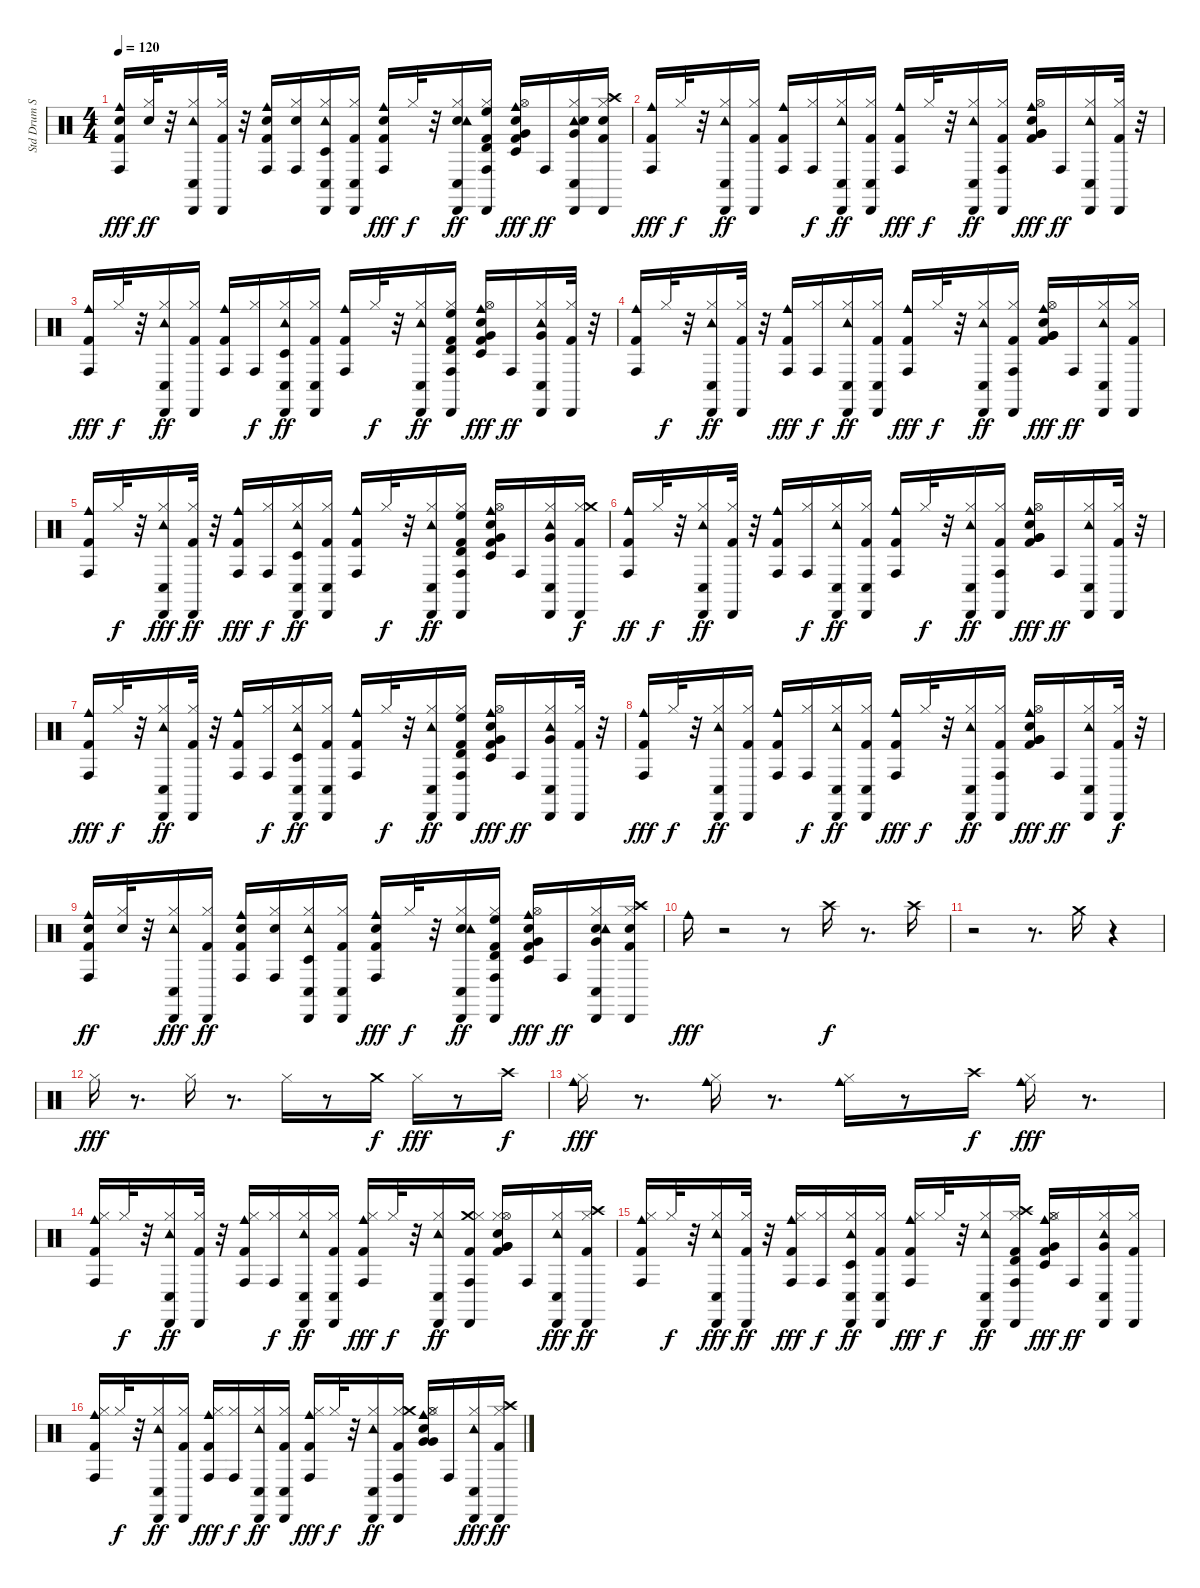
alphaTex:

\track ("Std Drum Set" "Std Drum S") {instrument percussion}
\staff {score}
\articulation defaults
\ts (4 4)
\tempo 120
\clef neutral
\ks c
("Electric Snare (hit)" "Conga high (hit)" "Cowbell medium (hit)" "Kick (hit) 2").16{dy fff} ("Hi-Hat (closed)" "Electric Snare (hit)").32{dy ff} r.32 ("Conga low (hit)" "Hi-Hat (closed)" "Cabasa (hit)" "Tambourine (hit)").16 ("Kick (hit) 2" "Hi-Hat (closed)" "Cabasa (hit)").32 r.32 ("Kick (hit) 2" "Cowbell medium (hit)" "Electric Snare (hit)" "Conga high (hit)").16 ("Conga high (hit)" "Hi-Hat (closed)" "Electric Snare (hit)").16 ("Tambourine (hit)" "Conga low (hit)" "Hi-Hat (closed)" "Cabasa (hit)" "Timbale low (hit)").16 ("Kick (hit) 2" "Conga low (hit)" "Cabasa (hit)" "Hi-Hat (closed)").16 ("Cowbell medium (hit)" "Electric Snare (hit)" "Conga high (hit)" "Kick (hit) 2").16{dy fff} "Hi-Hat (closed)".32{dy f} r.32 ("Conga low (hit)" "Cabasa (hit)" "Electric Snare (hit)" "Tambourine (hit)" "Hi-Hat (closed)").16{dy ff} ("Cabasa (hit)" "Kick (hit) 2" "High Floor Tom (hit)" "Timbale high (hit)" "Hi-Hat (closed)" "Conga high (hit)").16 ("Electric Snare (hit)" "Timbale low (hit)" "Cowbell medium (hit)" "Hi-Hat (open)" "Kick (hit) 2" "Very Low Tom (hit)").16{dy fff} "Conga high (hit)".16{dy ff} ("Tambourine (hit)" "Hi-Hat (closed)" "Conga low (hit)" "Cabasa (hit)" "Electric Snare (hit)" "Very Low Tom (hit)").16 ("Kick (hit) 2" "Electric Snare (hit)" "Cabasa (hit)" "Hi-Hat (closed)" "Crash high (hit)").16 |
("Conga high (hit)" "Kick (hit) 2" "Cowbell medium (hit)").16{dy fff} "Hi-Hat (closed)".32{dy f} r.32 ("Hi-Hat (closed)" "Cabasa (hit)" "Conga low (hit)" "Tambourine (hit)").16{dy ff} ("Hi-Hat (closed)" "Cabasa (hit)" "Kick (hit) 2").16 ("Cowbell medium (hit)" "Kick (hit) 2" "Conga high (hit)").16 ("Hi-Hat (closed)" "Conga high (hit)").16{dy f} ("Conga low (hit)" "Cabasa (hit)" "Tambourine (hit)" "Hi-Hat (closed)").16{dy ff} ("Conga low (hit)" "Cabasa (hit)" "Hi-Hat (closed)" "Kick (hit) 2").16 ("Kick (hit) 2" "Conga high (hit)" "Cowbell medium (hit)").16{dy fff} "Hi-Hat (closed)".32{dy f} r.32 ("Cabasa (hit)" "Conga low (hit)" "Hi-Hat (closed)" "Tambourine (hit)").16{dy ff} ("Conga high (hit)" "Kick (hit) 2" "Hi-Hat (closed)" "Cabasa (hit)").16 ("Electric Snare (hit)" "Very Low Tom (hit)" "Very Low Tom (hit)" "Hi-Hat (open)" "Cowbell medium (hit)" "Kick (hit) 2").16{dy fff} "Conga high (hit)".16{dy ff} ("Tambourine (hit)" "Conga low (hit)" "Cabasa (hit)" "Hi-Hat (closed)").16 ("Kick (hit) 2" "Hi-Hat (closed)" "Cabasa (hit)").32 r.32 |
("Cowbell medium (hit)" "Conga high (hit)" "Kick (hit) 2").16{dy fff} "Hi-Hat (closed)".32{dy f} r.32 ("Conga low (hit)" "Hi-Hat (closed)" "Tambourine (hit)" "Cabasa (hit)").16{dy ff} ("Hi-Hat (closed)" "Cabasa (hit)" "Kick (hit) 2").16 ("Cowbell medium (hit)" "Kick (hit) 2" "Conga high (hit)").16 ("Hi-Hat (closed)" "Conga high (hit)").16{dy f} ("Conga low (hit)" "Cabasa (hit)" "Tambourine (hit)" "Hi-Hat (closed)" "Timbale low (hit)").16{dy ff} ("Cabasa (hit)" "Kick (hit) 2" "Hi-Hat (closed)" "Conga low (hit)").16 ("Kick (hit) 2" "Cowbell medium (hit)" "Conga high (hit)").16 "Hi-Hat (closed)".32{dy f} r.32 ("Cabasa (hit)" "Hi-Hat (closed)" "Conga low (hit)" "Tambourine (hit)").16{dy ff} ("High Floor Tom (hit)" "Cabasa (hit)" "Timbale high (hit)" "Hi-Hat (closed)" "Conga high (hit)" "Kick (hit) 2").16 ("Timbale low (hit)" "Kick (hit) 2" "Very Low Tom (hit)" "Hi-Hat (open)" "Cowbell medium (hit)" "Electric Snare (hit)").16{dy fff} "Conga high (hit)".16{dy ff} ("Cabasa (hit)" "Tambourine (hit)" "Very Low Tom (hit)" "Conga low (hit)" "Hi-Hat (closed)").16 ("Kick (hit) 2" "Hi-Hat (closed)" "Cabasa (hit)").32 r.32 |
("Kick (hit) 2" "Cowbell medium (hit)" "Conga high (hit)").16 "Hi-Hat (closed)".32{dy f} r.32 ("Tambourine (hit)" "Hi-Hat (closed)" "Cabasa (hit)" "Conga low (hit)").16{dy ff} ("Hi-Hat (closed)" "Kick (hit) 2" "Cabasa (hit)").32 r.32 ("Kick (hit) 2" "Conga high (hit)" "Cowbell medium (hit)").16{dy fff} ("Hi-Hat (closed)" "Conga high (hit)").16{dy f} ("Cabasa (hit)" "Conga low (hit)" "Tambourine (hit)" "Hi-Hat (closed)").16{dy ff} ("Conga low (hit)" "Kick (hit) 2" "Cabasa (hit)" "Hi-Hat (closed)").16 ("Cowbell medium (hit)" "Conga high (hit)" "Kick (hit) 2").16{dy fff} "Hi-Hat (closed)".32{dy f} r.32 ("Cabasa (hit)" "Hi-Hat (closed)" "Tambourine (hit)" "Conga low (hit)").16{dy ff} ("Kick (hit) 2" "Conga high (hit)" "Cabasa (hit)" "Hi-Hat (closed)").16 ("Hi-Hat (open)" "Electric Snare (hit)" "Very Low Tom (hit)" "Kick (hit) 2" "Very Low Tom (hit)" "Cowbell medium (hit)").16{dy fff} "Conga high (hit)".16{dy ff} ("Cabasa (hit)" "Tambourine (hit)" "Hi-Hat (closed)" "Conga low (hit)").16 ("Cabasa (hit)" "Hi-Hat (closed)" "Kick (hit) 2").16 |
("Kick (hit) 2" "Cowbell medium (hit)" "Conga high (hit)").16 "Hi-Hat (closed)".32{dy f} r.32 ("Conga low (hit)" "Tambourine (hit)" "Hi-Hat (closed)" "Cabasa (hit)").16{dy fff} ("Kick (hit) 2" "Hi-Hat (closed)" "Cabasa (hit)").32{dy ff} r.32 ("Conga high (hit)" "Kick (hit) 2" "Cowbell medium (hit)").16{dy fff} ("Conga high (hit)" "Hi-Hat (closed)").16{dy f} ("Cabasa (hit)" "Tambourine (hit)" "Timbale low (hit)" "Hi-Hat (closed)" "Conga low (hit)").16{dy ff} ("Cabasa (hit)" "Kick (hit) 2" "Conga low (hit)" "Hi-Hat (closed)").16 ("Kick (hit) 2" "Cowbell medium (hit)" "Conga high (hit)").16 "Hi-Hat (closed)".32{dy f} r.32 ("Conga low (hit)" "Cabasa (hit)" "Hi-Hat (closed)" "Tambourine (hit)").16{dy ff} ("High Floor Tom (hit)" "Kick (hit) 2" "Timbale high (hit)" "Cabasa (hit)" "Hi-Hat (closed)" "Conga high (hit)").16 ("Kick (hit) 2" "Cowbell medium (hit)" "Hi-Hat (open)" "Timbale low (hit)" "Very Low Tom (hit)" "Electric Snare (hit)").16 "Conga high (hit)".16 ("Cabasa (hit)" "Very Low Tom (hit)" "Conga low (hit)" "Tambourine (hit)" "Hi-Hat (closed)").16 ("Cabasa (hit)" "Hi-Hat (closed)" "Kick (hit) 2" "Crash medium (hit)").16{dy f} |
("Cowbell medium (hit)" "Kick (hit) 2" "Conga high (hit)").16{dy ff} "Hi-Hat (closed)".32{dy f} r.32 ("Conga low (hit)" "Hi-Hat (closed)" "Tambourine (hit)" "Cabasa (hit)").16{dy ff} ("Hi-Hat (closed)" "Cabasa (hit)" "Kick (hit) 2").32 r.32 ("Cowbell medium (hit)" "Kick (hit) 2" "Conga high (hit)").16 ("Conga high (hit)" "Hi-Hat (closed)").16{dy f} ("Hi-Hat (closed)" "Conga low (hit)" "Cabasa (hit)" "Tambourine (hit)").16{dy ff} ("Cabasa (hit)" "Kick (hit) 2" "Conga low (hit)" "Hi-Hat (closed)").16 ("Cowbell medium (hit)" "Kick (hit) 2" "Conga high (hit)").16 "Hi-Hat (closed)".32{dy f} r.32 ("Hi-Hat (closed)" "Tambourine (hit)" "Cabasa (hit)" "Conga low (hit)").16{dy ff} ("Cabasa (hit)" "Conga high (hit)" "Hi-Hat (closed)" "Kick (hit) 2").16 ("Kick (hit) 2" "Hi-Hat (open)" "Cowbell medium (hit)" "Very Low Tom (hit)" "Very Low Tom (hit)" "Electric Snare (hit)").16{dy fff} "Conga high (hit)".16{dy ff} ("Tambourine (hit)" "Hi-Hat (closed)" "Conga low (hit)" "Cabasa (hit)").16 ("Kick (hit) 2" "Cabasa (hit)" "Hi-Hat (closed)").32 r.32 |
("Conga high (hit)" "Cowbell medium (hit)" "Kick (hit) 2").16{dy fff} "Hi-Hat (closed)".32{dy f} r.32 ("Conga low (hit)" "Cabasa (hit)" "Hi-Hat (closed)" "Tambourine (hit)").16{dy ff} ("Hi-Hat (closed)" "Cabasa (hit)" "Kick (hit) 2").32 r.32 ("Cowbell medium (hit)" "Kick (hit) 2" "Conga high (hit)").16 ("Conga high (hit)" "Hi-Hat (closed)").16{dy f} ("Cabasa (hit)" "Hi-Hat (closed)" "Conga low (hit)" "Timbale low (hit)" "Tambourine (hit)").16{dy ff} ("Cabasa (hit)" "Hi-Hat (closed)" "Conga low (hit)" "Kick (hit) 2").16 ("Cowbell medium (hit)" "Kick (hit) 2" "Conga high (hit)").16 "Hi-Hat (closed)".32{dy f} r.32 ("Tambourine (hit)" "Conga low (hit)" "Cabasa (hit)" "Hi-Hat (closed)").16{dy ff} ("Timbale high (hit)" "Cabasa (hit)" "Conga high (hit)" "High Floor Tom (hit)" "Hi-Hat (closed)" "Kick (hit) 2").16 ("Timbale low (hit)" "Hi-Hat (open)" "Cowbell medium (hit)" "Electric Snare (hit)" "Very Low Tom (hit)" "Kick (hit) 2").16{dy fff} "Conga high (hit)".16{dy ff} ("Cabasa (hit)" "Tambourine (hit)" "Hi-Hat (closed)" "Very Low Tom (hit)" "Conga low (hit)").16 ("Kick (hit) 2" "Hi-Hat (closed)" "Cabasa (hit)").32 r.32 |
("Conga high (hit)" "Kick (hit) 2" "Cowbell medium (hit)").16{dy fff} "Hi-Hat (closed)".32{dy f} r.32 ("Tambourine (hit)" "Cabasa (hit)" "Conga low (hit)" "Hi-Hat (closed)").16{dy ff} ("Cabasa (hit)" "Hi-Hat (closed)" "Kick (hit) 2").16 ("Kick (hit) 2" "Cowbell medium (hit)" "Conga high (hit)").16 ("Hi-Hat (closed)" "Conga high (hit)").16{dy f} ("Conga low (hit)" "Cabasa (hit)" "Tambourine (hit)" "Hi-Hat (closed)").16{dy ff} ("Cabasa (hit)" "Hi-Hat (closed)" "Kick (hit) 2" "Conga low (hit)").16 ("Kick (hit) 2" "Conga high (hit)" "Cowbell medium (hit)").16{dy fff} "Hi-Hat (closed)".32{dy f} r.32 ("Conga low (hit)" "Cabasa (hit)" "Hi-Hat (closed)" "Tambourine (hit)").16{dy ff} ("Cabasa (hit)" "Hi-Hat (closed)" "Conga high (hit)" "Kick (hit) 2").16 ("Electric Snare (hit)" "Cowbell medium (hit)" "Hi-Hat (open)" "Very Low Tom (hit)" "Kick (hit) 2" "Very Low Tom (hit)").16{dy fff} "Conga high (hit)".16{dy ff} ("Cabasa (hit)" "Conga low (hit)" "Hi-Hat (closed)" "Tambourine (hit)").16 ("Cabasa (hit)" "Hi-Hat (closed)" "Kick (hit) 2").32{dy f} r.32 |
("Cowbell medium (hit)" "Electric Snare (hit)" "Kick (hit) 2" "Conga high (hit)").16{dy ff} ("Electric Snare (hit)" "Hi-Hat (closed)").32 r.32 ("Tambourine (hit)" "Conga low (hit)" "Hi-Hat (closed)" "Cabasa (hit)").16{dy fff} ("Hi-Hat (closed)" "Kick (hit) 2" "Cabasa (hit)").16{dy ff} ("Cowbell medium (hit)" "Electric Snare (hit)" "Kick (hit) 2" "Conga high (hit)").16 ("Electric Snare (hit)" "Hi-Hat (closed)" "Conga high (hit)").16 ("Cabasa (hit)" "Conga low (hit)" "Tambourine (hit)" "Timbale low (hit)" "Hi-Hat (closed)").16 ("Cabasa (hit)" "Hi-Hat (closed)" "Conga low (hit)" "Kick (hit) 2").16 ("Conga high (hit)" "Electric Snare (hit)" "Kick (hit) 2" "Cowbell medium (hit)").16{dy fff} "Hi-Hat (closed)".32{dy f} r.32 ("Electric Snare (hit)" "Tambourine (hit)" "Hi-Hat (closed)" "Cabasa (hit)" "Conga low (hit)").16{dy ff} ("Timbale high (hit)" "Conga high (hit)" "Hi-Hat (closed)" "Kick (hit) 2" "Cabasa (hit)" "High Floor Tom (hit)").16 ("Cowbell medium (hit)" "Electric Snare (hit)" "Hi-Hat (open)" "Timbale low (hit)" "Kick (hit) 2" "Very Low Tom (hit)").16{dy fff} "Conga high (hit)".16{dy ff} ("Electric Snare (hit)" "Tambourine (hit)" "Hi-Hat (closed)" "Cabasa (hit)" "Very Low Tom (hit)" "Conga low (hit)").16 ("Kick (hit) 2" "Crash high (hit)" "Hi-Hat (closed)" "Cabasa (hit)" "Electric Snare (hit)").16 |
"Cowbell medium (hit)".16{dy fff} r.2 r.8 "Crash high (hit)".16{dy f} r.8{d} "Crash high (hit)".16 |
r.2 r.8{d} "Crash medium (hit)".16 r.4 |
"Hi-Hat (closed)".16{dy fff} r.8{d} "Hi-Hat (closed)".16 r.8{d} "Hi-Hat (closed)".16 r.8 "Crash medium (hit)".16{dy f} "Hi-Hat (closed)".16{dy fff} r.8 "Crash high (hit)".16{dy f} |
("Cowbell medium (hit)" "Hi-Hat (closed)").16{dy fff} r.8{d} ("Hi-Hat (closed)" "Cowbell medium (hit)").16 r.8{d} ("Cowbell medium (hit)" "Hi-Hat (closed)").16 r.8 "Crash high (hit)".16{dy f} ("Cowbell medium (hit)" "Hi-Hat (closed)").16{dy fff} r.8{d} |
("Conga high (hit)" "Kick (hit) 2" "Hi-Hat (closed)" "Cowbell medium (hit)").16 "Hi-Hat (closed)".32{dy f} r.32 ("Hi-Hat (closed)" "Tambourine (hit)" "Cabasa (hit)" "Conga low (hit)").16{dy ff} ("Cabasa (hit)" "Hi-Hat (closed)" "Kick (hit) 2").32 r.32 ("Cowbell medium (hit)" "Kick (hit) 2" "Hi-Hat (closed)" "Conga high (hit)").16 ("Conga high (hit)" "Hi-Hat (closed)").16{dy f} ("Tambourine (hit)" "Cabasa (hit)" "Conga low (hit)" "Hi-Hat (closed)").16{dy ff} ("Hi-Hat (closed)" "Cabasa (hit)" "Conga low (hit)" "Kick (hit) 2").16 ("Cowbell medium (hit)" "Conga high (hit)" "Hi-Hat (closed)" "Kick (hit) 2").16{dy fff} "Hi-Hat (closed)".32{dy f} r.32 ("Hi-Hat (closed)" "Cabasa (hit)" "Tambourine (hit)" "Conga low (hit)").16{dy ff} ("Crash medium (hit)" "Cabasa (hit)" "Kick (hit) 2" "Conga high (hit)" "Hi-Hat (closed)").16 ("Very Low Tom (hit)" "Hi-Hat (closed)" "Kick (hit) 2" "Very Low Tom (hit)" "Hi-Hat (open)" "Electric Snare (hit)").16 "Conga high (hit)".16 ("Conga low (hit)" "Tambourine (hit)" "Hi-Hat (closed)" "Cabasa (hit)").16{dy fff} ("Cabasa (hit)" "Crash high (hit)" "Kick (hit) 2" "Hi-Hat (closed)").16{dy ff} |
("Hi-Hat (closed)" "Cowbell medium (hit)" "Kick (hit) 2" "Conga high (hit)").16 "Hi-Hat (closed)".32{dy f} r.32 ("Hi-Hat (closed)" "Tambourine (hit)" "Conga low (hit)" "Cabasa (hit)").16{dy fff} ("Hi-Hat (closed)" "Cabasa (hit)" "Kick (hit) 2").32{dy ff} r.32 ("Kick (hit) 2" "Hi-Hat (closed)" "Conga high (hit)" "Cowbell medium (hit)").16{dy fff} ("Hi-Hat (closed)" "Conga high (hit)").16{dy f} ("Tambourine (hit)" "Conga low (hit)" "Cabasa (hit)" "Timbale low (hit)" "Hi-Hat (closed)").16{dy ff} ("Kick (hit) 2" "Conga low (hit)" "Hi-Hat (closed)" "Cabasa (hit)").16 ("Hi-Hat (closed)" "Kick (hit) 2" "Conga high (hit)" "Cowbell medium (hit)").16{dy fff} "Hi-Hat (closed)".32{dy f} r.32 ("Conga low (hit)" "Hi-Hat (closed)" "Tambourine (hit)" "Cabasa (hit)").16{dy ff} ("Crash high (hit)" "Cabasa (hit)" "Conga high (hit)" "Timbale high (hit)" "Hi-Hat (closed)" "Kick (hit) 2").16 ("Timbale low (hit)" "Cowbell medium (hit)" "Very Low Tom (hit)" "Kick (hit) 2" "Hi-Hat (open)" "Hi-Hat (closed)").16{dy fff} "Conga high (hit)".16{dy ff} ("Cabasa (hit)" "Conga low (hit)" "Tambourine (hit)" "Hi-Hat (closed)" "Very Low Tom (hit)").16 ("Hi-Hat (closed)" "Cabasa (hit)" "Kick (hit) 2").16 |
("Hi-Hat (closed)" "Kick (hit) 2" "Cowbell medium (hit)" "Conga high (hit)").16 "Hi-Hat (closed)".32{dy f} r.32 ("Tambourine (hit)" "Cabasa (hit)" "Hi-Hat (closed)" "Conga low (hit)").16{dy ff} ("Hi-Hat (closed)" "Kick (hit) 2" "Cabasa (hit)").16 ("Conga high (hit)" "Cowbell medium (hit)" "Kick (hit) 2" "Hi-Hat (closed)").16{dy fff} ("Conga high (hit)" "Hi-Hat (closed)").16{dy f} ("Cabasa (hit)" "Hi-Hat (closed)" "Tambourine (hit)" "Conga low (hit)").16{dy ff} ("Hi-Hat (closed)" "Conga low (hit)" "Cabasa (hit)" "Kick (hit) 2").16 ("Kick (hit) 2" "Cowbell medium (hit)" "Conga high (hit)" "Hi-Hat (closed)").16{dy fff} "Hi-Hat (closed)".32{dy f} r.32 ("Tambourine (hit)" "Cabasa (hit)" "Conga low (hit)" "Hi-Hat (closed)").16{dy ff} ("Hi-Hat (closed)" "Cabasa (hit)" "Kick (hit) 2" "Conga high (hit)" "Crash medium (hit)").16 ("Very Low Tom (hit)" "Very Low Tom (hit)" "Cowbell medium (hit)" "Electric Snare (hit)" "Hi-Hat (closed)" "Hi-Hat (open)").16 "Conga high (hit)".16 ("Hi-Hat (closed)" "Conga low (hit)" "Tambourine (hit)" "Cabasa (hit)").16{dy fff} ("Crash high (hit)" "Hi-Hat (closed)" "Cabasa (hit)" "Kick (hit) 2").16{dy ff}
